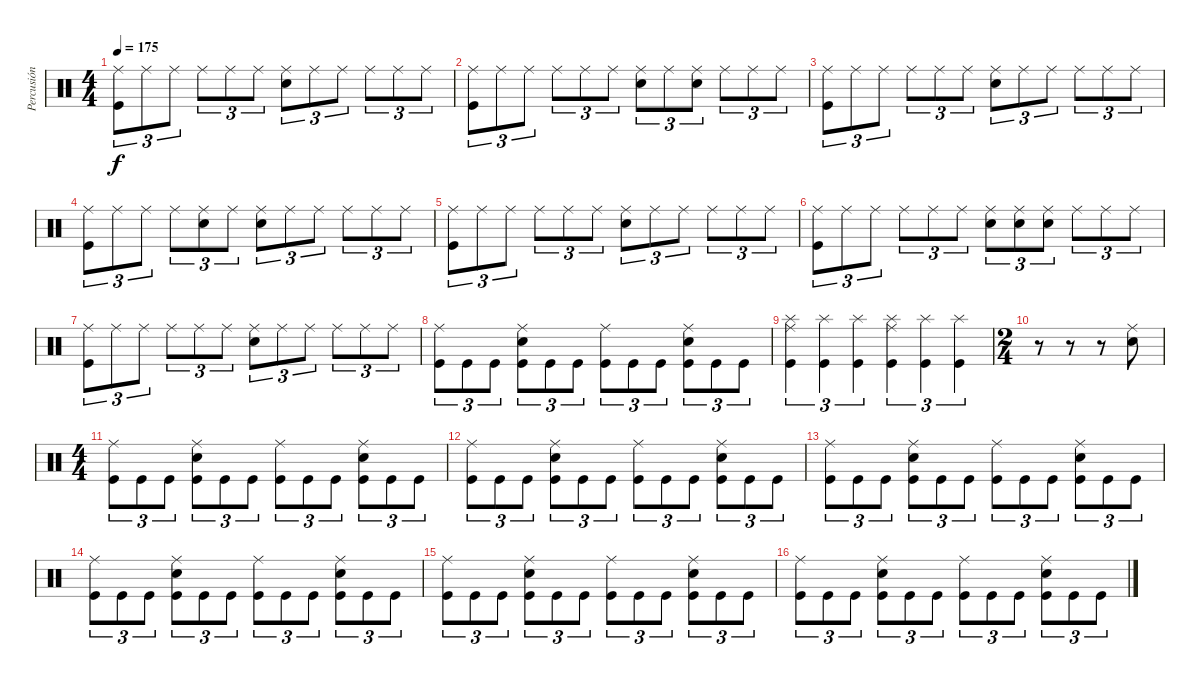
\track ("Percusión" "Percusión") {instrument percussion}
\staff {score}
\articulation defaults
\ts (4 4)
\tempo 175
\clef neutral
\ks c
("Ride (middle)" "Kick (hit)").8{tu (3 2) dy f} "Ride (middle)".8{tu (3 2)} "Ride (middle)".8{tu (3 2)} "Ride (middle)".8{tu (3 2)} "Ride (middle)".8{tu (3 2)} "Ride (middle)".8{tu (3 2)} ("Ride (middle)" "Electric Snare (hit)").8{tu (3 2)} "Ride (middle)".8{tu (3 2)} "Ride (middle)".8{tu (3 2)} "Ride (middle)".8{tu (3 2)} "Ride (middle)".8{tu (3 2)} "Ride (middle)".8{tu (3 2)} |
("Ride (middle)" "Kick (hit)").8{tu (3 2)} "Ride (middle)".8{tu (3 2)} "Ride (middle)".8{tu (3 2)} "Ride (middle)".8{tu (3 2)} "Ride (middle)".8{tu (3 2)} "Ride (middle)".8{tu (3 2)} ("Ride (middle)" "Electric Snare (hit)").8{tu (3 2)} "Ride (middle)".8{tu (3 2)} ("Ride (middle)" "Electric Snare (hit)").8{tu (3 2)} "Ride (middle)".8{tu (3 2)} "Ride (middle)".8{tu (3 2)} "Ride (middle)".8{tu (3 2)} |
("Ride (middle)" "Kick (hit)").8{tu (3 2)} "Ride (middle)".8{tu (3 2)} "Ride (middle)".8{tu (3 2)} "Ride (middle)".8{tu (3 2)} "Ride (middle)".8{tu (3 2)} "Ride (middle)".8{tu (3 2)} ("Ride (middle)" "Electric Snare (hit)").8{tu (3 2)} "Ride (middle)".8{tu (3 2)} "Ride (middle)".8{tu (3 2)} "Ride (middle)".8{tu (3 2)} "Ride (middle)".8{tu (3 2)} "Ride (middle)".8{tu (3 2)} |
("Ride (middle)" "Kick (hit)").8{tu (3 2)} "Ride (middle)".8{tu (3 2)} "Ride (middle)".8{tu (3 2)} "Ride (middle)".8{tu (3 2)} ("Ride (middle)" "Electric Snare (hit)").8{tu (3 2)} "Ride (middle)".8{tu (3 2)} ("Ride (middle)" "Electric Snare (hit)").8{tu (3 2)} "Ride (middle)".8{tu (3 2)} "Ride (middle)".8{tu (3 2)} "Ride (middle)".8{tu (3 2)} "Ride (middle)".8{tu (3 2)} "Ride (middle)".8{tu (3 2)} |
("Ride (middle)" "Kick (hit)").8{tu (3 2)} "Ride (middle)".8{tu (3 2)} "Ride (middle)".8{tu (3 2)} "Ride (middle)".8{tu (3 2)} "Ride (middle)".8{tu (3 2)} "Ride (middle)".8{tu (3 2)} ("Ride (middle)" "Electric Snare (hit)").8{tu (3 2)} "Ride (middle)".8{tu (3 2)} "Ride (middle)".8{tu (3 2)} "Ride (middle)".8{tu (3 2)} "Ride (middle)".8{tu (3 2)} "Ride (middle)".8{tu (3 2)} |
("Ride (middle)" "Kick (hit)").8{tu (3 2)} "Ride (middle)".8{tu (3 2)} "Ride (middle)".8{tu (3 2)} "Ride (middle)".8{tu (3 2)} "Ride (middle)".8{tu (3 2)} "Ride (middle)".8{tu (3 2)} ("Ride (middle)" "Electric Snare (hit)").8{tu (3 2)} ("Ride (middle)" "Electric Snare (hit)").8{tu (3 2)} ("Ride (middle)" "Electric Snare (hit)").8{tu (3 2)} "Ride (middle)".8{tu (3 2)} "Ride (middle)".8{tu (3 2)} "Ride (middle)".8{tu (3 2)} |
("Ride (middle)" "Kick (hit)").8{tu (3 2)} "Ride (middle)".8{tu (3 2)} "Ride (middle)".8{tu (3 2)} "Ride (middle)".8{tu (3 2)} "Ride (middle)".8{tu (3 2)} "Ride (middle)".8{tu (3 2)} ("Ride (middle)" "Electric Snare (hit)").8{tu (3 2)} "Ride (middle)".8{tu (3 2)} "Ride (middle)".8{tu (3 2)} "Ride (middle)".8{tu (3 2)} "Ride (middle)".8{tu (3 2)} "Ride (middle)".8{tu (3 2)} |
("Kick (hit)" "Ride (middle)").8{tu (3 2)} "Kick (hit)".8{tu (3 2)} "Kick (hit)".8{tu (3 2)} ("Kick (hit)" "Electric Snare (hit)" "Ride (middle)").8{tu (3 2)} "Kick (hit)".8{tu (3 2)} "Kick (hit)".8{tu (3 2)} ("Kick (hit)" "Ride (middle)").8{tu (3 2)} "Kick (hit)".8{tu (3 2)} "Kick (hit)".8{tu (3 2)} ("Kick (hit)" "Electric Snare (hit)" "Ride (middle)").8{tu (3 2)} "Kick (hit)".8{tu (3 2)} "Kick (hit)".8{tu (3 2)} |
("Splash (hit)" "Kick (hit)" "Ride (middle)").4{tu (3 2)} ("Splash (hit)" "Kick (hit)").4{tu (3 2)} ("Splash (hit)" "Kick (hit)").4{tu (3 2)} ("Splash (hit)" "Kick (hit)" "Ride (middle)").4{tu (3 2)} ("Splash (hit)" "Kick (hit)").4{tu (3 2)} ("Splash (hit)" "Kick (hit)").4{tu (3 2)} |
\ts (2 4)
r.8 r.8 r.8 ("Ride (middle)" "Electric Snare (hit)").8 |
\ts (4 4)
("Kick (hit)" "Ride (middle)").8{tu (3 2)} "Kick (hit)".8{tu (3 2)} "Kick (hit)".8{tu (3 2)} ("Kick (hit)" "Electric Snare (hit)" "Ride (middle)").8{tu (3 2)} "Kick (hit)".8{tu (3 2)} "Kick (hit)".8{tu (3 2)} ("Kick (hit)" "Ride (middle)").8{tu (3 2)} "Kick (hit)".8{tu (3 2)} "Kick (hit)".8{tu (3 2)} ("Kick (hit)" "Electric Snare (hit)" "Ride (middle)").8{tu (3 2)} "Kick (hit)".8{tu (3 2)} "Kick (hit)".8{tu (3 2)} |
("Kick (hit)" "Ride (middle)").8{tu (3 2)} "Kick (hit)".8{tu (3 2)} "Kick (hit)".8{tu (3 2)} ("Kick (hit)" "Electric Snare (hit)" "Ride (middle)").8{tu (3 2)} "Kick (hit)".8{tu (3 2)} "Kick (hit)".8{tu (3 2)} ("Kick (hit)" "Ride (middle)").8{tu (3 2)} "Kick (hit)".8{tu (3 2)} "Kick (hit)".8{tu (3 2)} ("Kick (hit)" "Electric Snare (hit)" "Ride (middle)").8{tu (3 2)} "Kick (hit)".8{tu (3 2)} "Kick (hit)".8{tu (3 2)} |
("Kick (hit)" "Ride (middle)").8{tu (3 2)} "Kick (hit)".8{tu (3 2)} "Kick (hit)".8{tu (3 2)} ("Kick (hit)" "Electric Snare (hit)" "Ride (middle)").8{tu (3 2)} "Kick (hit)".8{tu (3 2)} "Kick (hit)".8{tu (3 2)} ("Kick (hit)" "Ride (middle)").8{tu (3 2)} "Kick (hit)".8{tu (3 2)} "Kick (hit)".8{tu (3 2)} ("Kick (hit)" "Electric Snare (hit)" "Ride (middle)").8{tu (3 2)} "Kick (hit)".8{tu (3 2)} "Kick (hit)".8{tu (3 2)} |
("Kick (hit)" "Ride (middle)").8{tu (3 2)} "Kick (hit)".8{tu (3 2)} "Kick (hit)".8{tu (3 2)} ("Kick (hit)" "Electric Snare (hit)" "Ride (middle)").8{tu (3 2)} "Kick (hit)".8{tu (3 2)} "Kick (hit)".8{tu (3 2)} ("Kick (hit)" "Ride (middle)").8{tu (3 2)} "Kick (hit)".8{tu (3 2)} "Kick (hit)".8{tu (3 2)} ("Kick (hit)" "Electric Snare (hit)" "Ride (middle)").8{tu (3 2)} "Kick (hit)".8{tu (3 2)} "Kick (hit)".8{tu (3 2)} |
("Kick (hit)" "Ride (middle)").8{tu (3 2)} "Kick (hit)".8{tu (3 2)} "Kick (hit)".8{tu (3 2)} ("Kick (hit)" "Electric Snare (hit)" "Ride (middle)").8{tu (3 2)} "Kick (hit)".8{tu (3 2)} "Kick (hit)".8{tu (3 2)} ("Kick (hit)" "Ride (middle)").8{tu (3 2)} "Kick (hit)".8{tu (3 2)} "Kick (hit)".8{tu (3 2)} ("Kick (hit)" "Electric Snare (hit)" "Ride (middle)").8{tu (3 2)} "Kick (hit)".8{tu (3 2)} "Kick (hit)".8{tu (3 2)} |
("Kick (hit)" "Ride (middle)").8{tu (3 2)} "Kick (hit)".8{tu (3 2)} "Kick (hit)".8{tu (3 2)} ("Kick (hit)" "Electric Snare (hit)" "Ride (middle)").8{tu (3 2)} "Kick (hit)".8{tu (3 2)} "Kick (hit)".8{tu (3 2)} ("Kick (hit)" "Ride (middle)").8{tu (3 2)} "Kick (hit)".8{tu (3 2)} "Kick (hit)".8{tu (3 2)} ("Kick (hit)" "Electric Snare (hit)" "Ride (middle)").8{tu (3 2)} "Kick (hit)".8{tu (3 2)} "Kick (hit)".8{tu (3 2)}
